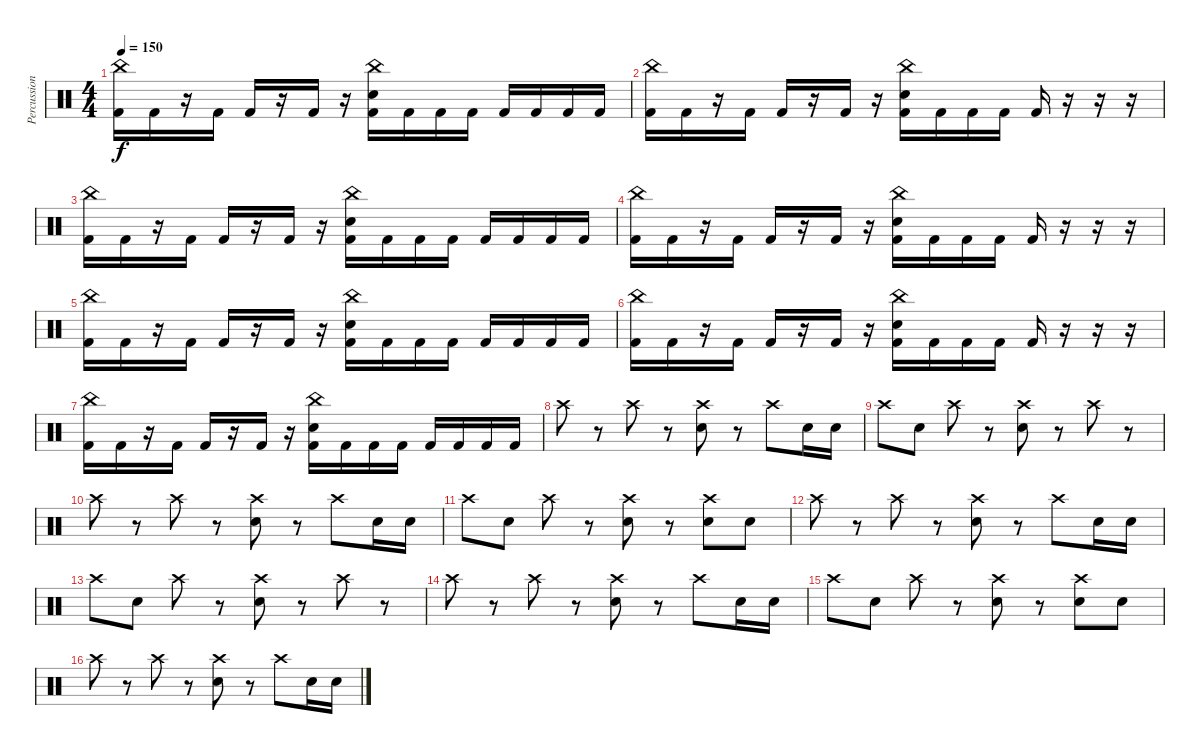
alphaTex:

\track ("Percussion" "Percussion") {instrument percussion}
\staff {score}
\articulation defaults
\ts (4 4)
\tempo 150
\clef neutral
\ks c
("China (hit)" "Kick (hit) 2").16{dy f} "Kick (hit) 2".16 r.16 "Kick (hit) 2".16 "Kick (hit) 2".16 r.16 "Kick (hit) 2".16 r.16 ("China (hit)" "Snare (hit) 2" "Kick (hit) 2").16 "Kick (hit) 2".16 "Kick (hit) 2".16 "Kick (hit) 2".16 "Kick (hit) 2".16 "Kick (hit) 2".16 "Kick (hit) 2".16 "Kick (hit) 2".16 |
("China (hit)" "Kick (hit) 2").16 "Kick (hit) 2".16 r.16 "Kick (hit) 2".16 "Kick (hit) 2".16 r.16 "Kick (hit) 2".16 r.16 ("China (hit)" "Snare (hit) 2" "Kick (hit) 2").16 "Kick (hit) 2".16 "Kick (hit) 2".16 "Kick (hit) 2".16 "Kick (hit) 2".16 r.16 r.16 r.16 |
("China (hit)" "Kick (hit) 2").16 "Kick (hit) 2".16 r.16 "Kick (hit) 2".16 "Kick (hit) 2".16 r.16 "Kick (hit) 2".16 r.16 ("China (hit)" "Snare (hit) 2" "Kick (hit) 2").16 "Kick (hit) 2".16 "Kick (hit) 2".16 "Kick (hit) 2".16 "Kick (hit) 2".16 "Kick (hit) 2".16 "Kick (hit) 2".16 "Kick (hit) 2".16 |
("China (hit)" "Kick (hit) 2").16 "Kick (hit) 2".16 r.16 "Kick (hit) 2".16 "Kick (hit) 2".16 r.16 "Kick (hit) 2".16 r.16 ("China (hit)" "Snare (hit) 2" "Kick (hit) 2").16 "Kick (hit) 2".16 "Kick (hit) 2".16 "Kick (hit) 2".16 "Kick (hit) 2".16 r.16 r.16 r.16 |
("China (hit)" "Kick (hit) 2").16 "Kick (hit) 2".16 r.16 "Kick (hit) 2".16 "Kick (hit) 2".16 r.16 "Kick (hit) 2".16 r.16 ("China (hit)" "Snare (hit) 2" "Kick (hit) 2").16 "Kick (hit) 2".16 "Kick (hit) 2".16 "Kick (hit) 2".16 "Kick (hit) 2".16 "Kick (hit) 2".16 "Kick (hit) 2".16 "Kick (hit) 2".16 |
("China (hit)" "Kick (hit) 2").16 "Kick (hit) 2".16 r.16 "Kick (hit) 2".16 "Kick (hit) 2".16 r.16 "Kick (hit) 2".16 r.16 ("China (hit)" "Snare (hit) 2" "Kick (hit) 2").16 "Kick (hit) 2".16 "Kick (hit) 2".16 "Kick (hit) 2".16 "Kick (hit) 2".16 r.16 r.16 r.16 |
("China (hit)" "Kick (hit) 2").16 "Kick (hit) 2".16 r.16 "Kick (hit) 2".16 "Kick (hit) 2".16 r.16 "Kick (hit) 2".16 r.16 ("China (hit)" "Snare (hit) 2" "Kick (hit) 2").16 "Kick (hit) 2".16 "Kick (hit) 2".16 "Kick (hit) 2".16 "Kick (hit) 2".16 "Kick (hit) 2".16 "Kick (hit) 2".16 "Kick (hit) 2".16 |
"Crash high (hit)".8 r.8 "Crash high (hit)".8 r.8 ("Crash high (hit)" "Snare (hit) 2").8 r.8 "Crash high (hit)".8 "Snare (hit) 2".16 "Snare (hit) 2".16 |
"Crash high (hit)".8 "Snare (hit) 2".8 "Crash high (hit)".8 r.8 ("Crash high (hit)" "Snare (hit) 2").8 r.8 "Crash high (hit)".8 r.8 |
"Crash high (hit)".8 r.8 "Crash high (hit)".8 r.8 ("Crash high (hit)" "Snare (hit) 2").8 r.8 "Crash high (hit)".8 "Snare (hit) 2".16 "Snare (hit) 2".16 |
"Crash high (hit)".8 "Snare (hit) 2".8 "Crash high (hit)".8 r.8 ("Crash high (hit)" "Snare (hit) 2").8 r.8 ("Crash high (hit)" "Snare (hit) 2").8 "Snare (hit) 2".8 |
"Crash high (hit)".8 r.8 "Crash high (hit)".8 r.8 ("Crash high (hit)" "Snare (hit) 2").8 r.8 "Crash high (hit)".8 "Snare (hit) 2".16 "Snare (hit) 2".16 |
"Crash high (hit)".8 "Snare (hit) 2".8 "Crash high (hit)".8 r.8 ("Crash high (hit)" "Snare (hit) 2").8 r.8 "Crash high (hit)".8 r.8 |
"Crash high (hit)".8 r.8 "Crash high (hit)".8 r.8 ("Crash high (hit)" "Snare (hit) 2").8 r.8 "Crash high (hit)".8 "Snare (hit) 2".16 "Snare (hit) 2".16 |
"Crash high (hit)".8 "Snare (hit) 2".8 "Crash high (hit)".8 r.8 ("Crash high (hit)" "Snare (hit) 2").8 r.8 ("Crash high (hit)" "Snare (hit) 2").8 "Snare (hit) 2".8 |
"Crash high (hit)".8 r.8 "Crash high (hit)".8 r.8 ("Crash high (hit)" "Snare (hit) 2").8 r.8 "Crash high (hit)".8 "Snare (hit) 2".16 "Snare (hit) 2".16
